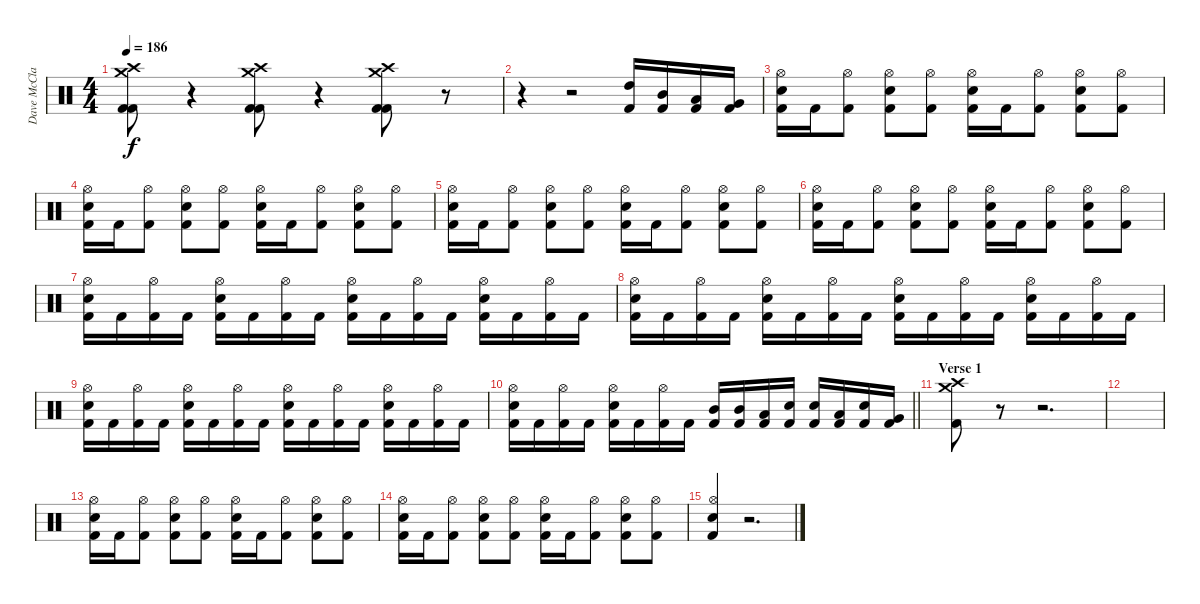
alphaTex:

\track ("Dave McClain" "Dave McCla") {instrument percussion}
\staff {score}
\articulation defaults
\ts (4 4)
\tempo 186
\clef neutral
\ks c
("Crash medium (hit)" "Crash high (hit)" "Kick (hit) 2" "Kick (hit) 2").8{dy f} r.4 ("Crash medium (hit)" "Crash high (hit)" "Kick (hit) 2" "Kick (hit) 2").8 r.4 ("Crash medium (hit)" "Crash high (hit)" "Kick (hit) 2" "Kick (hit) 2").8 r.8 |
r.4 r.2 ("High Tom (hit)" "Kick (hit) 2").16 ("Mid Tom (hit)" "Kick (hit) 2").16 ("Low Tom (hit)" "Kick (hit) 2").16 ("Very Low Tom (hit)" "Kick (hit) 2").16 |
("Hi-Hat (open)" "Snare (hit) 2" "Kick (hit) 2").16 "Kick (hit) 2".16 ("Hi-Hat (open)" "Kick (hit) 2").8 ("Hi-Hat (open)" "Snare (hit) 2" "Kick (hit) 2").8 ("Hi-Hat (open)" "Kick (hit) 2").8 ("Hi-Hat (open)" "Snare (hit) 2" "Kick (hit) 2").16 "Kick (hit) 2".16 ("Hi-Hat (open)" "Kick (hit) 2").8 ("Hi-Hat (open)" "Snare (hit) 2" "Kick (hit) 2").8 ("Hi-Hat (open)" "Kick (hit) 2").8 |
("Hi-Hat (open)" "Snare (hit) 2" "Kick (hit) 2").16 "Kick (hit) 2".16 ("Hi-Hat (open)" "Kick (hit) 2").8 ("Hi-Hat (open)" "Snare (hit) 2" "Kick (hit) 2").8 ("Hi-Hat (open)" "Kick (hit) 2").8 ("Hi-Hat (open)" "Snare (hit) 2" "Kick (hit) 2").16 "Kick (hit) 2".16 ("Hi-Hat (open)" "Kick (hit) 2").8 ("Hi-Hat (open)" "Snare (hit) 2" "Kick (hit) 2").8 ("Hi-Hat (open)" "Kick (hit) 2").8 |
("Hi-Hat (open)" "Snare (hit) 2" "Kick (hit) 2").16 "Kick (hit) 2".16 ("Hi-Hat (open)" "Kick (hit) 2").8 ("Hi-Hat (open)" "Snare (hit) 2" "Kick (hit) 2").8 ("Hi-Hat (open)" "Kick (hit) 2").8 ("Hi-Hat (open)" "Snare (hit) 2" "Kick (hit) 2").16 "Kick (hit) 2".16 ("Hi-Hat (open)" "Kick (hit) 2").8 ("Hi-Hat (open)" "Snare (hit) 2" "Kick (hit) 2").8 ("Hi-Hat (open)" "Kick (hit) 2").8 |
("Hi-Hat (open)" "Snare (hit) 2" "Kick (hit) 2").16 "Kick (hit) 2".16 ("Hi-Hat (open)" "Kick (hit) 2").8 ("Hi-Hat (open)" "Snare (hit) 2" "Kick (hit) 2").8 ("Hi-Hat (open)" "Kick (hit) 2").8 ("Hi-Hat (open)" "Snare (hit) 2" "Kick (hit) 2").16 "Kick (hit) 2".16 ("Hi-Hat (open)" "Kick (hit) 2").8 ("Hi-Hat (open)" "Snare (hit) 2" "Kick (hit) 2").8 ("Hi-Hat (open)" "Kick (hit) 2").8 |
("Hi-Hat (open)" "Snare (hit) 2" "Kick (hit) 2").16 "Kick (hit) 2".16 ("Hi-Hat (open)" "Kick (hit) 2").16 "Kick (hit) 2".16 ("Hi-Hat (open)" "Snare (hit) 2" "Kick (hit) 2").16 "Kick (hit) 2".16 ("Hi-Hat (open)" "Kick (hit) 2").16 "Kick (hit) 2".16 ("Hi-Hat (open)" "Snare (hit) 2" "Kick (hit) 2").16 "Kick (hit) 2".16 ("Hi-Hat (open)" "Kick (hit) 2").16 "Kick (hit) 2".16 ("Hi-Hat (open)" "Snare (hit) 2" "Kick (hit) 2").16 "Kick (hit) 2".16 ("Hi-Hat (open)" "Kick (hit) 2").16 "Kick (hit) 2".16 |
("Hi-Hat (open)" "Snare (hit) 2" "Kick (hit) 2").16 "Kick (hit) 2".16 ("Hi-Hat (open)" "Kick (hit) 2").16 "Kick (hit) 2".16 ("Hi-Hat (open)" "Snare (hit) 2" "Kick (hit) 2").16 "Kick (hit) 2".16 ("Hi-Hat (open)" "Kick (hit) 2").16 "Kick (hit) 2".16 ("Hi-Hat (open)" "Snare (hit) 2" "Kick (hit) 2").16 "Kick (hit) 2".16 ("Hi-Hat (open)" "Kick (hit) 2").16 "Kick (hit) 2".16 ("Hi-Hat (open)" "Snare (hit) 2" "Kick (hit) 2").16 "Kick (hit) 2".16 ("Hi-Hat (open)" "Kick (hit) 2").16 "Kick (hit) 2".16 |
("Hi-Hat (open)" "Snare (hit) 2" "Kick (hit) 2").16 "Kick (hit) 2".16 ("Hi-Hat (open)" "Kick (hit) 2").16 "Kick (hit) 2".16 ("Hi-Hat (open)" "Snare (hit) 2" "Kick (hit) 2").16 "Kick (hit) 2".16 ("Hi-Hat (open)" "Kick (hit) 2").16 "Kick (hit) 2".16 ("Hi-Hat (open)" "Snare (hit) 2" "Kick (hit) 2").16 "Kick (hit) 2".16 ("Hi-Hat (open)" "Kick (hit) 2").16 "Kick (hit) 2".16 ("Hi-Hat (open)" "Snare (hit) 2" "Kick (hit) 2").16 "Kick (hit) 2".16 ("Hi-Hat (open)" "Kick (hit) 2").16 "Kick (hit) 2".16 |
\barLineRight lightlight
("Hi-Hat (open)" "Snare (hit) 2" "Kick (hit) 2").16 "Kick (hit) 2".16 ("Hi-Hat (open)" "Kick (hit) 2").16 "Kick (hit) 2".16 ("Hi-Hat (open)" "Snare (hit) 2" "Kick (hit) 2").16 "Kick (hit) 2".16 ("Hi-Hat (open)" "Kick (hit) 2").16 "Kick (hit) 2".16 ("Mid Tom (hit)" "Kick (hit) 2").16 ("Mid Tom (hit)" "Kick (hit) 2").16 ("Low Tom (hit)" "Kick (hit) 2").16 ("Snare (hit) 2" "Kick (hit) 2").16 ("Snare (hit) 2" "Kick (hit) 2").16 ("Low Tom (hit)" "Kick (hit) 2").16 ("Snare (hit) 2" "Kick (hit) 2").16 ("Very Low Tom (hit)" "Kick (hit) 2").16 |
\section ("" "Verse 1")
("Crash medium (hit)" "Crash high (hit)" "Kick (hit) 2").8 r.8 r.2{d} |
|
("Hi-Hat (open)" "Snare (hit) 2" "Kick (hit) 2").16 "Kick (hit) 2".16 ("Hi-Hat (open)" "Kick (hit) 2").8 ("Hi-Hat (open)" "Snare (hit) 2" "Kick (hit) 2").8 ("Hi-Hat (open)" "Kick (hit) 2").8 ("Hi-Hat (open)" "Snare (hit) 2" "Kick (hit) 2").16 "Kick (hit) 2".16 ("Hi-Hat (open)" "Kick (hit) 2").8 ("Hi-Hat (open)" "Snare (hit) 2" "Kick (hit) 2").8 ("Hi-Hat (open)" "Kick (hit) 2").8 |
("Hi-Hat (open)" "Snare (hit) 2" "Kick (hit) 2").16 "Kick (hit) 2".16 ("Hi-Hat (open)" "Kick (hit) 2").8 ("Hi-Hat (open)" "Snare (hit) 2" "Kick (hit) 2").8 ("Hi-Hat (open)" "Kick (hit) 2").8 ("Hi-Hat (open)" "Snare (hit) 2" "Kick (hit) 2").16 "Kick (hit) 2".16 ("Hi-Hat (open)" "Kick (hit) 2").8 ("Hi-Hat (open)" "Snare (hit) 2" "Kick (hit) 2").8 ("Hi-Hat (open)" "Kick (hit) 2").8 |
("Hi-Hat (open)" "Snare (hit) 2" "Kick (hit) 2").4 r.2{d}
